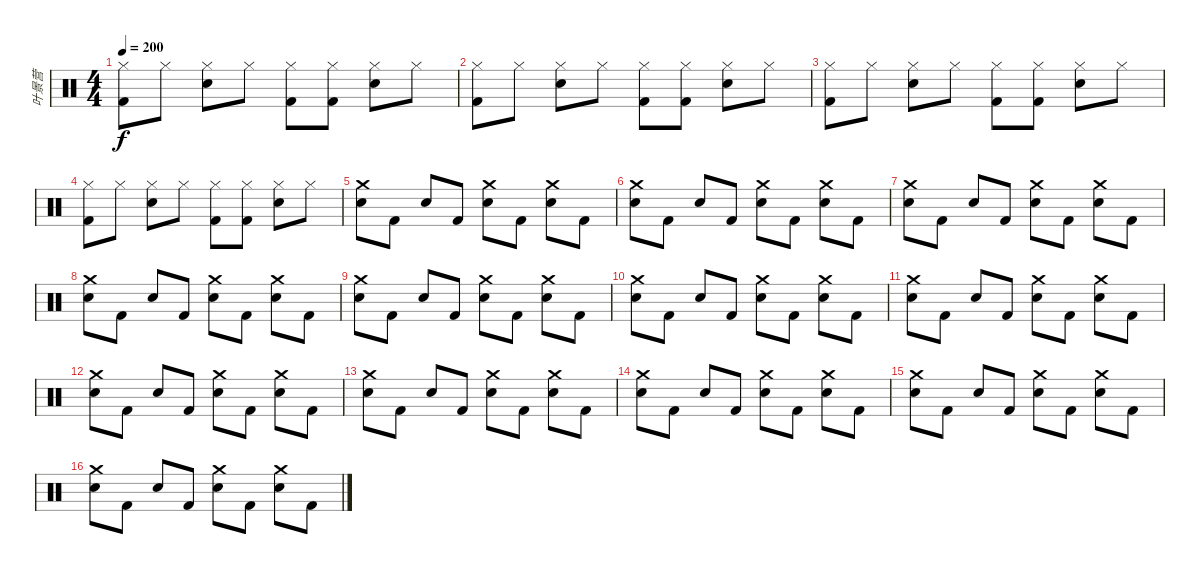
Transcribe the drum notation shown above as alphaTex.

\track ("叶景营" "叶景营") {instrument percussion}
\staff {score}
\articulation defaults
\ts (4 4)
\tempo 200
\clef neutral
\ks c
("Hi-Hat (closed)" "Kick (hit) 2").8{dy f} "Hi-Hat (closed)".8 ("Hi-Hat (closed)" "Electric Snare (hit)").8 "Hi-Hat (closed)".8 ("Hi-Hat (closed)" "Kick (hit) 2").8 ("Hi-Hat (closed)" "Kick (hit) 2").8 ("Hi-Hat (closed)" "Electric Snare (hit)").8 "Hi-Hat (closed)".8 |
("Hi-Hat (closed)" "Kick (hit) 2").8 "Hi-Hat (closed)".8 ("Hi-Hat (closed)" "Electric Snare (hit)").8 "Hi-Hat (closed)".8 ("Hi-Hat (closed)" "Kick (hit) 2").8 ("Hi-Hat (closed)" "Kick (hit) 2").8 ("Hi-Hat (closed)" "Electric Snare (hit)").8 "Hi-Hat (closed)".8 |
("Hi-Hat (closed)" "Kick (hit) 2").8 "Hi-Hat (closed)".8 ("Hi-Hat (closed)" "Electric Snare (hit)").8 "Hi-Hat (closed)".8 ("Hi-Hat (closed)" "Kick (hit) 2").8 ("Hi-Hat (closed)" "Kick (hit) 2").8 ("Hi-Hat (closed)" "Electric Snare (hit)").8 "Hi-Hat (closed)".8 |
("Hi-Hat (closed)" "Kick (hit) 2").8 "Hi-Hat (closed)".8 ("Hi-Hat (closed)" "Electric Snare (hit)").8 "Hi-Hat (closed)".8 ("Hi-Hat (closed)" "Kick (hit) 2").8 ("Hi-Hat (closed)" "Kick (hit) 2").8 ("Hi-Hat (closed)" "Electric Snare (hit)").8 "Hi-Hat (closed)".8 |
("Crash medium (hit)" "Electric Snare (hit)").8 "Kick (hit) 2".8 "Electric Snare (hit)".8 "Kick (hit) 2".8 ("Crash medium (hit)" "Electric Snare (hit)").8 "Kick (hit) 2".8 ("Crash medium (hit)" "Electric Snare (hit)").8 "Kick (hit) 2".8 |
("Crash medium (hit)" "Electric Snare (hit)").8 "Kick (hit) 2".8 "Electric Snare (hit)".8 "Kick (hit) 2".8 ("Crash medium (hit)" "Electric Snare (hit)").8 "Kick (hit) 2".8 ("Crash medium (hit)" "Electric Snare (hit)").8 "Kick (hit) 2".8 |
("Crash medium (hit)" "Electric Snare (hit)").8 "Kick (hit) 2".8 "Electric Snare (hit)".8 "Kick (hit) 2".8 ("Crash medium (hit)" "Electric Snare (hit)").8 "Kick (hit) 2".8 ("Crash medium (hit)" "Electric Snare (hit)").8 "Kick (hit) 2".8 |
("Crash medium (hit)" "Electric Snare (hit)").8 "Kick (hit) 2".8 "Electric Snare (hit)".8 "Kick (hit) 2".8 ("Crash medium (hit)" "Electric Snare (hit)").8 "Kick (hit) 2".8 ("Crash medium (hit)" "Electric Snare (hit)").8 "Kick (hit) 2".8 |
("Crash medium (hit)" "Electric Snare (hit)").8 "Kick (hit) 2".8 "Electric Snare (hit)".8 "Kick (hit) 2".8 ("Crash medium (hit)" "Electric Snare (hit)").8 "Kick (hit) 2".8 ("Crash medium (hit)" "Electric Snare (hit)").8 "Kick (hit) 2".8 |
("Crash medium (hit)" "Electric Snare (hit)").8 "Kick (hit) 2".8 "Electric Snare (hit)".8 "Kick (hit) 2".8 ("Crash medium (hit)" "Electric Snare (hit)").8 "Kick (hit) 2".8 ("Crash medium (hit)" "Electric Snare (hit)").8 "Kick (hit) 2".8 |
("Crash medium (hit)" "Electric Snare (hit)").8 "Kick (hit) 2".8 "Electric Snare (hit)".8 "Kick (hit) 2".8 ("Crash medium (hit)" "Electric Snare (hit)").8 "Kick (hit) 2".8 ("Crash medium (hit)" "Electric Snare (hit)").8 "Kick (hit) 2".8 |
("Crash medium (hit)" "Electric Snare (hit)").8 "Kick (hit) 2".8 "Electric Snare (hit)".8 "Kick (hit) 2".8 ("Crash medium (hit)" "Electric Snare (hit)").8 "Kick (hit) 2".8 ("Crash medium (hit)" "Electric Snare (hit)").8 "Kick (hit) 2".8 |
("Crash medium (hit)" "Electric Snare (hit)").8 "Kick (hit) 2".8 "Electric Snare (hit)".8 "Kick (hit) 2".8 ("Crash medium (hit)" "Electric Snare (hit)").8 "Kick (hit) 2".8 ("Crash medium (hit)" "Electric Snare (hit)").8 "Kick (hit) 2".8 |
("Crash medium (hit)" "Electric Snare (hit)").8 "Kick (hit) 2".8 "Electric Snare (hit)".8 "Kick (hit) 2".8 ("Crash medium (hit)" "Electric Snare (hit)").8 "Kick (hit) 2".8 ("Crash medium (hit)" "Electric Snare (hit)").8 "Kick (hit) 2".8 |
("Crash medium (hit)" "Electric Snare (hit)").8 "Kick (hit) 2".8 "Electric Snare (hit)".8 "Kick (hit) 2".8 ("Crash medium (hit)" "Electric Snare (hit)").8 "Kick (hit) 2".8 ("Crash medium (hit)" "Electric Snare (hit)").8 "Kick (hit) 2".8 |
("Crash medium (hit)" "Electric Snare (hit)").8 "Kick (hit) 2".8 "Electric Snare (hit)".8 "Kick (hit) 2".8 ("Crash medium (hit)" "Electric Snare (hit)").8 "Kick (hit) 2".8 ("Crash medium (hit)" "Electric Snare (hit)").8 "Kick (hit) 2".8
